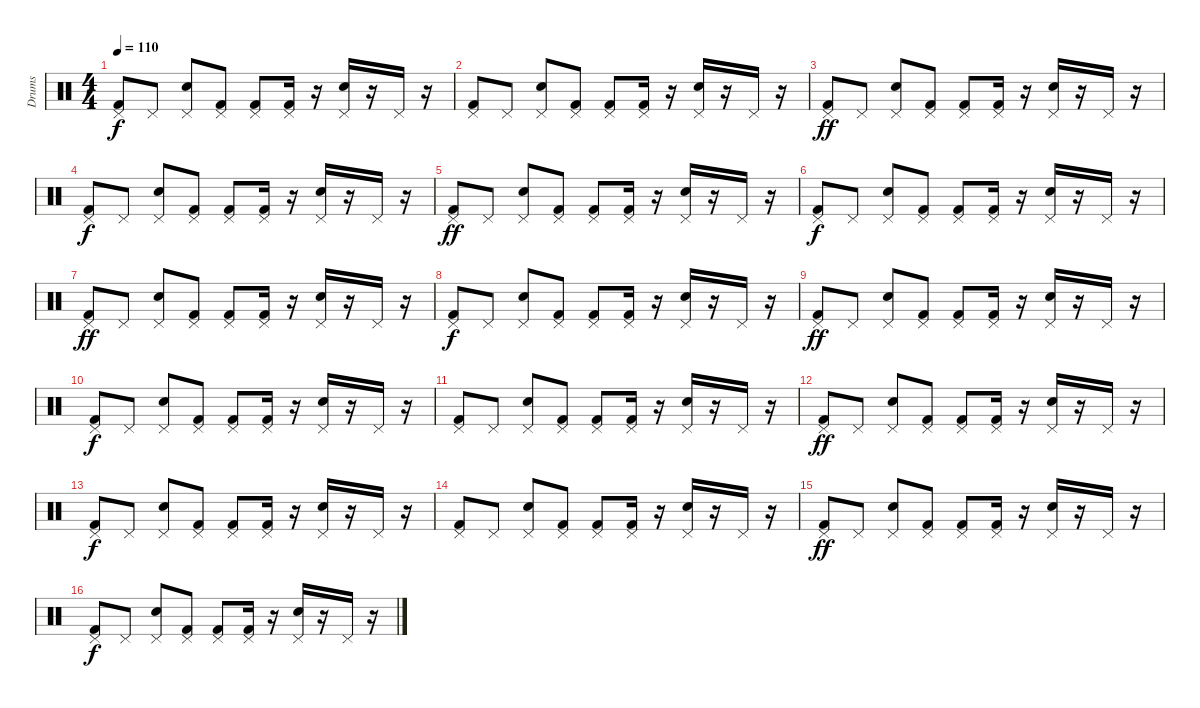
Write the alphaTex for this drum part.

\track ("Drums" "Drums") {instrument percussion}
\staff {score}
\articulation defaults
\ts (4 4)
\tempo 110
\clef neutral
\ks c
("Pedal Hi-Hat (hit)" "Kick (hit) 2").8{dy f} "Pedal Hi-Hat (hit)".8 ("Pedal Hi-Hat (hit)" "Electric Snare (hit)").8 ("Pedal Hi-Hat (hit)" "Kick (hit) 2").8 ("Pedal Hi-Hat (hit)" "Kick (hit) 2").8 ("Pedal Hi-Hat (hit)" "Kick (hit) 2").16 r.16 ("Pedal Hi-Hat (hit)" "Electric Snare (hit)").16 r.16 "Pedal Hi-Hat (hit)".16 r.16 |
("Pedal Hi-Hat (hit)" "Kick (hit) 2").8 "Pedal Hi-Hat (hit)".8 ("Pedal Hi-Hat (hit)" "Electric Snare (hit)").8 ("Pedal Hi-Hat (hit)" "Kick (hit) 2").8 ("Pedal Hi-Hat (hit)" "Kick (hit) 2").8 ("Pedal Hi-Hat (hit)" "Kick (hit) 2").16 r.16 ("Pedal Hi-Hat (hit)" "Electric Snare (hit)").16 r.16 "Pedal Hi-Hat (hit)".16 r.16 |
("Pedal Hi-Hat (hit)" "Kick (hit) 2").8{dy ff} "Pedal Hi-Hat (hit)".8 ("Pedal Hi-Hat (hit)" "Electric Snare (hit)").8 ("Pedal Hi-Hat (hit)" "Kick (hit) 2").8 ("Pedal Hi-Hat (hit)" "Kick (hit) 2").8 ("Pedal Hi-Hat (hit)" "Kick (hit) 2").16 r.16 ("Pedal Hi-Hat (hit)" "Electric Snare (hit)").16 r.16 "Pedal Hi-Hat (hit)".16 r.16 |
("Pedal Hi-Hat (hit)" "Kick (hit) 2").8{dy f} "Pedal Hi-Hat (hit)".8 ("Pedal Hi-Hat (hit)" "Electric Snare (hit)").8 ("Pedal Hi-Hat (hit)" "Kick (hit) 2").8 ("Pedal Hi-Hat (hit)" "Kick (hit) 2").8 ("Pedal Hi-Hat (hit)" "Kick (hit) 2").16 r.16 ("Pedal Hi-Hat (hit)" "Electric Snare (hit)").16 r.16 "Pedal Hi-Hat (hit)".16 r.16 |
("Pedal Hi-Hat (hit)" "Kick (hit) 2").8{dy ff} "Pedal Hi-Hat (hit)".8 ("Pedal Hi-Hat (hit)" "Electric Snare (hit)").8 ("Pedal Hi-Hat (hit)" "Kick (hit) 2").8 ("Pedal Hi-Hat (hit)" "Kick (hit) 2").8 ("Pedal Hi-Hat (hit)" "Kick (hit) 2").16 r.16 ("Pedal Hi-Hat (hit)" "Electric Snare (hit)").16 r.16 "Pedal Hi-Hat (hit)".16 r.16 |
("Pedal Hi-Hat (hit)" "Kick (hit) 2").8{dy f} "Pedal Hi-Hat (hit)".8 ("Pedal Hi-Hat (hit)" "Electric Snare (hit)").8 ("Pedal Hi-Hat (hit)" "Kick (hit) 2").8 ("Pedal Hi-Hat (hit)" "Kick (hit) 2").8 ("Pedal Hi-Hat (hit)" "Kick (hit) 2").16 r.16 ("Pedal Hi-Hat (hit)" "Electric Snare (hit)").16 r.16 "Pedal Hi-Hat (hit)".16 r.16 |
("Pedal Hi-Hat (hit)" "Kick (hit) 2").8{dy ff} "Pedal Hi-Hat (hit)".8 ("Pedal Hi-Hat (hit)" "Electric Snare (hit)").8 ("Pedal Hi-Hat (hit)" "Kick (hit) 2").8 ("Pedal Hi-Hat (hit)" "Kick (hit) 2").8 ("Pedal Hi-Hat (hit)" "Kick (hit) 2").16 r.16 ("Pedal Hi-Hat (hit)" "Electric Snare (hit)").16 r.16 "Pedal Hi-Hat (hit)".16 r.16 |
("Pedal Hi-Hat (hit)" "Kick (hit) 2").8{dy f} "Pedal Hi-Hat (hit)".8 ("Pedal Hi-Hat (hit)" "Electric Snare (hit)").8 ("Pedal Hi-Hat (hit)" "Kick (hit) 2").8 ("Pedal Hi-Hat (hit)" "Kick (hit) 2").8 ("Pedal Hi-Hat (hit)" "Kick (hit) 2").16 r.16 ("Pedal Hi-Hat (hit)" "Electric Snare (hit)").16 r.16 "Pedal Hi-Hat (hit)".16 r.16 |
("Pedal Hi-Hat (hit)" "Kick (hit) 2").8{dy ff} "Pedal Hi-Hat (hit)".8 ("Pedal Hi-Hat (hit)" "Electric Snare (hit)").8 ("Pedal Hi-Hat (hit)" "Kick (hit) 2").8 ("Pedal Hi-Hat (hit)" "Kick (hit) 2").8 ("Pedal Hi-Hat (hit)" "Kick (hit) 2").16 r.16 ("Pedal Hi-Hat (hit)" "Electric Snare (hit)").16 r.16 "Pedal Hi-Hat (hit)".16 r.16 |
("Pedal Hi-Hat (hit)" "Kick (hit) 2").8{dy f} "Pedal Hi-Hat (hit)".8 ("Pedal Hi-Hat (hit)" "Electric Snare (hit)").8 ("Pedal Hi-Hat (hit)" "Kick (hit) 2").8 ("Pedal Hi-Hat (hit)" "Kick (hit) 2").8 ("Pedal Hi-Hat (hit)" "Kick (hit) 2").16 r.16 ("Pedal Hi-Hat (hit)" "Electric Snare (hit)").16 r.16 "Pedal Hi-Hat (hit)".16 r.16 |
("Pedal Hi-Hat (hit)" "Kick (hit) 2").8 "Pedal Hi-Hat (hit)".8 ("Pedal Hi-Hat (hit)" "Electric Snare (hit)").8 ("Pedal Hi-Hat (hit)" "Kick (hit) 2").8 ("Pedal Hi-Hat (hit)" "Kick (hit) 2").8 ("Pedal Hi-Hat (hit)" "Kick (hit) 2").16 r.16 ("Pedal Hi-Hat (hit)" "Electric Snare (hit)").16 r.16 "Pedal Hi-Hat (hit)".16 r.16 |
("Pedal Hi-Hat (hit)" "Kick (hit) 2").8{dy ff} "Pedal Hi-Hat (hit)".8 ("Pedal Hi-Hat (hit)" "Electric Snare (hit)").8 ("Pedal Hi-Hat (hit)" "Kick (hit) 2").8 ("Pedal Hi-Hat (hit)" "Kick (hit) 2").8 ("Pedal Hi-Hat (hit)" "Kick (hit) 2").16 r.16 ("Pedal Hi-Hat (hit)" "Electric Snare (hit)").16 r.16 "Pedal Hi-Hat (hit)".16 r.16 |
("Pedal Hi-Hat (hit)" "Kick (hit) 2").8{dy f} "Pedal Hi-Hat (hit)".8 ("Pedal Hi-Hat (hit)" "Electric Snare (hit)").8 ("Pedal Hi-Hat (hit)" "Kick (hit) 2").8 ("Pedal Hi-Hat (hit)" "Kick (hit) 2").8 ("Pedal Hi-Hat (hit)" "Kick (hit) 2").16 r.16 ("Pedal Hi-Hat (hit)" "Electric Snare (hit)").16 r.16 "Pedal Hi-Hat (hit)".16 r.16 |
("Pedal Hi-Hat (hit)" "Kick (hit) 2").8 "Pedal Hi-Hat (hit)".8 ("Pedal Hi-Hat (hit)" "Electric Snare (hit)").8 ("Pedal Hi-Hat (hit)" "Kick (hit) 2").8 ("Pedal Hi-Hat (hit)" "Kick (hit) 2").8 ("Pedal Hi-Hat (hit)" "Kick (hit) 2").16 r.16 ("Pedal Hi-Hat (hit)" "Electric Snare (hit)").16 r.16 "Pedal Hi-Hat (hit)".16 r.16 |
("Pedal Hi-Hat (hit)" "Kick (hit) 2").8{dy ff} "Pedal Hi-Hat (hit)".8 ("Pedal Hi-Hat (hit)" "Electric Snare (hit)").8 ("Pedal Hi-Hat (hit)" "Kick (hit) 2").8 ("Pedal Hi-Hat (hit)" "Kick (hit) 2").8 ("Pedal Hi-Hat (hit)" "Kick (hit) 2").16 r.16 ("Pedal Hi-Hat (hit)" "Electric Snare (hit)").16 r.16 "Pedal Hi-Hat (hit)".16 r.16 |
("Pedal Hi-Hat (hit)" "Kick (hit) 2").8{dy f} "Pedal Hi-Hat (hit)".8 ("Pedal Hi-Hat (hit)" "Electric Snare (hit)").8 ("Pedal Hi-Hat (hit)" "Kick (hit) 2").8 ("Pedal Hi-Hat (hit)" "Kick (hit) 2").8 ("Pedal Hi-Hat (hit)" "Kick (hit) 2").16 r.16 ("Pedal Hi-Hat (hit)" "Electric Snare (hit)").16 r.16 "Pedal Hi-Hat (hit)".16 r.16
